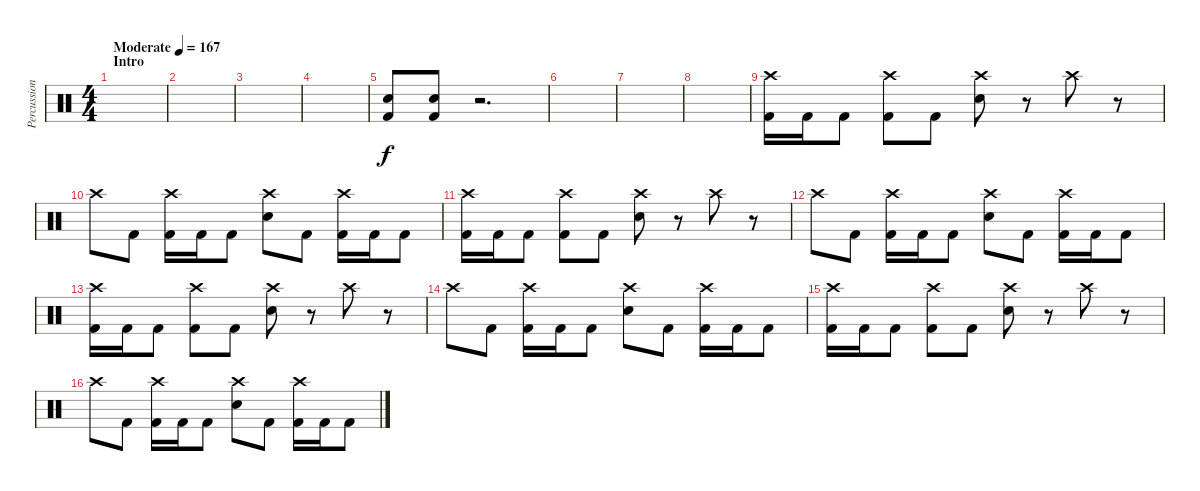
\track ("Percussion" "Percussion") {instrument percussion}
\staff {score}
\articulation defaults
\ts (4 4)
\section ("" "Intro")
\tempo (167 "Moderate")
\clef neutral
\ks c
|
|
|
|
("Electric Snare (hit)" "Kick (hit) 2").8 ("Electric Snare (hit)" "Kick (hit) 2").8 r.2{d} |
|
|
|
("Crash high (hit)" "Kick (hit) 2").16 "Kick (hit) 2".16 "Kick (hit) 2".8 ("Crash high (hit)" "Kick (hit) 2").8 "Kick (hit) 2".8 ("Crash high (hit)" "Electric Snare (hit)").8 r.8 "Crash high (hit)".8 r.8 |
"Crash high (hit)".8 "Kick (hit) 2".8 ("Crash high (hit)" "Kick (hit) 2").16 "Kick (hit) 2".16 "Kick (hit) 2".8 ("Crash high (hit)" "Electric Snare (hit)").8 "Kick (hit) 2".8 ("Crash high (hit)" "Kick (hit) 2").16 "Kick (hit) 2".16 "Kick (hit) 2".8 |
("Crash high (hit)" "Kick (hit) 2").16 "Kick (hit) 2".16 "Kick (hit) 2".8 ("Crash high (hit)" "Kick (hit) 2").8 "Kick (hit) 2".8 ("Crash high (hit)" "Electric Snare (hit)").8 r.8 "Crash high (hit)".8 r.8 |
"Crash high (hit)".8 "Kick (hit) 2".8 ("Crash high (hit)" "Kick (hit) 2").16 "Kick (hit) 2".16 "Kick (hit) 2".8 ("Crash high (hit)" "Electric Snare (hit)").8 "Kick (hit) 2".8 ("Crash high (hit)" "Kick (hit) 2").16 "Kick (hit) 2".16 "Kick (hit) 2".8 |
("Crash high (hit)" "Kick (hit) 2").16 "Kick (hit) 2".16 "Kick (hit) 2".8 ("Crash high (hit)" "Kick (hit) 2").8 "Kick (hit) 2".8 ("Crash high (hit)" "Electric Snare (hit)").8 r.8 "Crash high (hit)".8 r.8 |
"Crash high (hit)".8 "Kick (hit) 2".8 ("Crash high (hit)" "Kick (hit) 2").16 "Kick (hit) 2".16 "Kick (hit) 2".8 ("Crash high (hit)" "Electric Snare (hit)").8 "Kick (hit) 2".8 ("Crash high (hit)" "Kick (hit) 2").16 "Kick (hit) 2".16 "Kick (hit) 2".8 |
("Crash high (hit)" "Kick (hit) 2").16 "Kick (hit) 2".16 "Kick (hit) 2".8 ("Crash high (hit)" "Kick (hit) 2").8 "Kick (hit) 2".8 ("Crash high (hit)" "Electric Snare (hit)").8 r.8 "Crash high (hit)".8 r.8 |
"Crash high (hit)".8 "Kick (hit) 2".8 ("Crash high (hit)" "Kick (hit) 2").16 "Kick (hit) 2".16 "Kick (hit) 2".8 ("Crash high (hit)" "Electric Snare (hit)").8 "Kick (hit) 2".8 ("Crash high (hit)" "Kick (hit) 2").16 "Kick (hit) 2".16 "Kick (hit) 2".8
